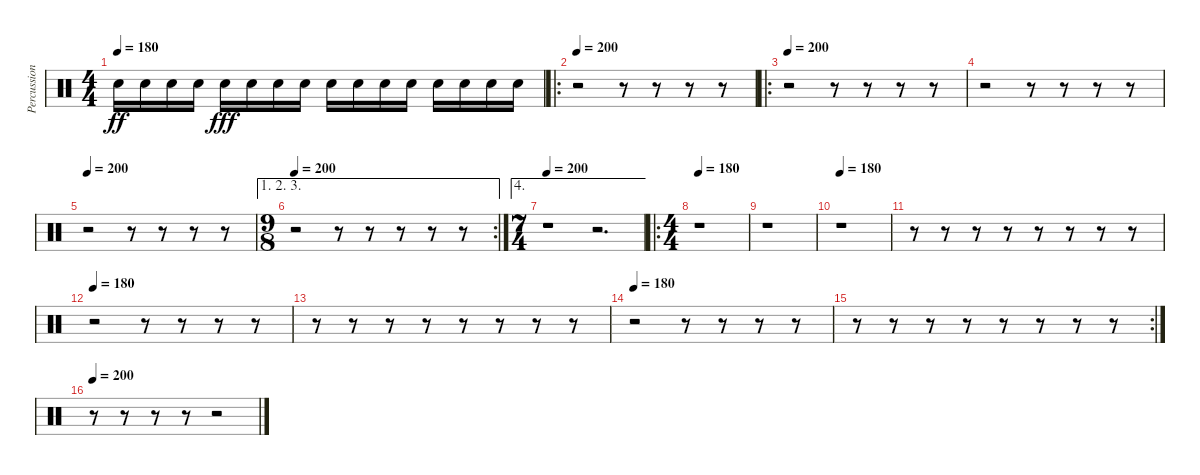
\track ("Percussion 2" "Percussion") {instrument percussion}
\staff {score}
\articulation defaults
\ts (4 4)
\tempo 180
\clef neutral
\ks c "Snare (hit) 2".16{dy ff} "Snare (hit) 2".16 "Snare (hit) 2".16 "Snare (hit) 2".16 "Snare (hit) 2".16{dy fff} "Snare (hit) 2".16 "Snare (hit) 2".16 "Snare (hit) 2".16 "Snare (hit) 2".16 "Snare (hit) 2".16 "Snare (hit) 2".16 "Snare (hit) 2".16 "Snare (hit) 2".16 "Snare (hit) 2".16 "Snare (hit) 2".16 "Snare (hit) 2".16
|
\ro
\tempo 200
r.2 r.8 r.8 r.8 r.8 |
\ro
\tempo 200
r.2 r.8 r.8 r.8 r.8 |
r.2 r.8 r.8 r.8 r.8 |
\tempo 200
r.2 r.8 r.8 r.8 r.8 |
\ae (1 2 3)
\rc 2
\ts (9 8)
\tempo 200
r.2 r.8 r.8 r.8 r.8 r.8 |
\ae 4
\ts (7 4)
\tempo 200
r.1 r.2{d} |
\ro
\ts (4 4)
\tempo 180
r.1 |
r.1 |
\tempo 180
r.1 |
r.8 r.8 r.8 r.8 r.8 r.8 r.8 r.8 |
\tempo 180
r.2 r.8 r.8 r.8 r.8 |
r.8 r.8 r.8 r.8 r.8 r.8 r.8 r.8 |
\tempo 180
r.2 r.8 r.8 r.8 r.8 |
\rc 2
r.8 r.8 r.8 r.8 r.8 r.8 r.8 r.8 |
\tempo 200
r.8 r.8 r.8 r.8 r.2
